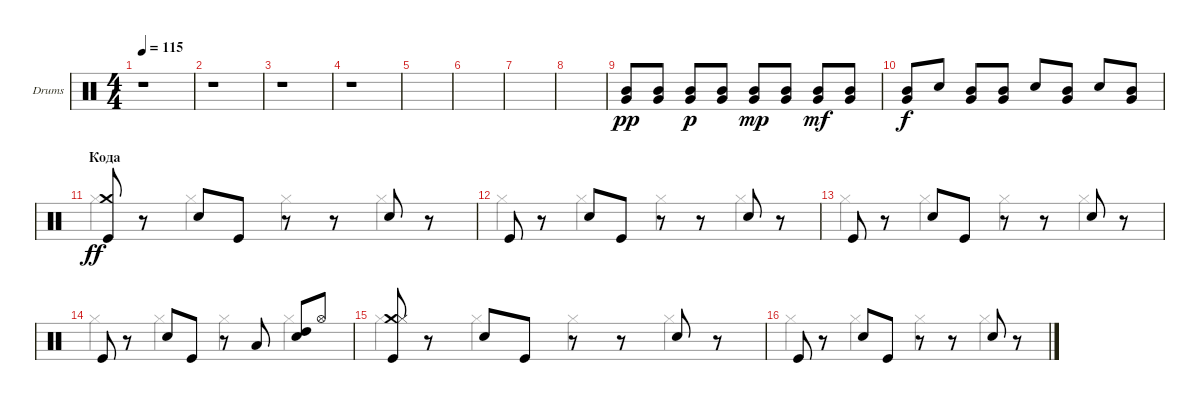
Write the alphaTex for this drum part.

\defaultSystemsLayout 4
\bracketExtendMode groupsimilarinstruments
\firstSystemTrackNameOrientation horizontal
\otherSystemsTrackNameOrientation horizontal
\track ("Миша \"Пчёлка\" Краев (Ударные)" "Drums") {instrument percussion}
\staff {score}
\articulation defaults
\voice
\ts (4 4)
\tempo 115
\clef neutral
\ks c
r.1{dy fff} |
r.1 |
r.1 |
r.1 |
|
|
|
|
("Very Low Tom (hit)" "Mid Tom (hit)").8{dy pp} ("Mid Tom (hit)" "Very Low Tom (hit)").8 ("Very Low Tom (hit)" "Mid Tom (hit)").8{dy p} ("Mid Tom (hit)" "Very Low Tom (hit)").8 ("Very Low Tom (hit)" "Mid Tom (hit)").8{dy mp} ("Mid Tom (hit)" "Very Low Tom (hit)").8 ("Very Low Tom (hit)" "Mid Tom (hit)").8{dy mf} ("Very Low Tom (hit)" "Mid Tom (hit)").8 |
("Very Low Tom (hit)" "Mid Tom (hit)").8{dy f} "Snare (hit) 2".8 ("Mid Tom (hit)" "Very Low Tom (hit)").8 ("Very Low Tom (hit)" "Mid Tom (hit)").8 "Snare (hit) 2".8 ("Mid Tom (hit)" "Very Low Tom (hit)").8 "Snare (hit) 2".8 ("Mid Tom (hit)" "Very Low Tom (hit)").8 |
\section ("" "Кода")
("Kick (hit)" "Crash medium (hit)").8{dy ff} r.8 "Snare (hit) 2".8 "Kick (hit)".8 r.8 r.8 "Snare (hit) 2".8 r.8 |
"Kick (hit)".8 r.8 "Snare (hit) 2".8 "Kick (hit)".8 r.8 r.8 "Snare (hit) 2".8 r.8 |
"Kick (hit)".8 r.8 "Snare (hit) 2".8 "Kick (hit)".8 r.8 r.8 "Snare (hit) 2".8 r.8 |
"Kick (hit)".8 r.8 "Snare (hit) 2".8 "Kick (hit)".8 r.8 "Low Tom (hit)".8 ("Snare (hit) 2" "High Tom (hit)").8 "Hi-Hat (open)".8 |
("Kick (hit)" "Crash medium (hit)" "Hi-Hat (closed)").8 r.8 "Snare (hit) 2".8 "Kick (hit)".8 r.8 r.8 "Snare (hit) 2".8 r.8 |
"Kick (hit)".8 r.8 "Snare (hit) 2".8 "Kick (hit)".8 r.8 r.8 "Snare (hit) 2".8 r.8
\voice
\clef neutral
\ottava regular
\simile none
\ks c
|
|
|
|
|
|
|
|
|
|
"Hi-Hat (closed)".4 "Hi-Hat (closed)".4 "Hi-Hat (closed)".4 "Hi-Hat (closed)".4 |
"Hi-Hat (closed)".4 "Hi-Hat (closed)".4 "Hi-Hat (closed)".4 "Hi-Hat (closed)".4 |
"Hi-Hat (closed)".4 "Hi-Hat (closed)".4 "Hi-Hat (closed)".4 "Hi-Hat (closed)".4 |
"Hi-Hat (closed)".4 "Hi-Hat (closed)".4 "Hi-Hat (closed)".4 "Hi-Hat (closed)".4 |
"Hi-Hat (closed)".4 "Hi-Hat (closed)".4 "Hi-Hat (closed)".4 "Hi-Hat (closed)".4 |
"Hi-Hat (closed)".4 "Hi-Hat (closed)".4 "Hi-Hat (closed)".4 "Hi-Hat (closed)".4
